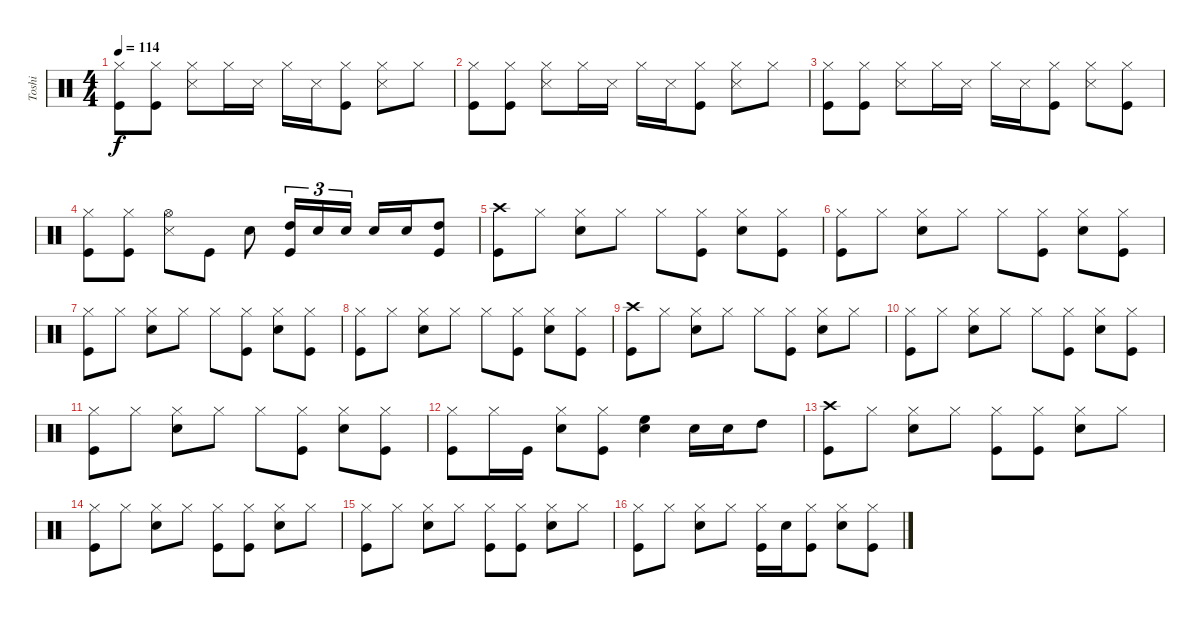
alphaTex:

\track ("Toshi" "Toshi") {instrument percussion}
\staff {score}
\articulation defaults
\ts (4 4)
\tempo 114
\clef neutral
\ks c
("Hi-Hat (closed)" "Kick (hit)").8{dy f} ("Hi-Hat (closed)" "Kick (hit)").8 ("Hi-Hat (closed)" "Snare (side stick) 3").8 "Hi-Hat (closed)".16 "Snare (side stick) 3".16 "Hi-Hat (closed)".16 "Snare (side stick) 3".16 ("Hi-Hat (closed)" "Kick (hit)").8 ("Hi-Hat (closed)" "Snare (side stick) 3").8 "Hi-Hat (closed)".8 |
("Hi-Hat (closed)" "Kick (hit)").8 ("Hi-Hat (closed)" "Kick (hit)").8 ("Hi-Hat (closed)" "Snare (side stick) 3").8 "Hi-Hat (closed)".16 "Snare (side stick) 3".16 "Hi-Hat (closed)".16 "Snare (side stick) 3".16 ("Hi-Hat (closed)" "Kick (hit)").8 ("Hi-Hat (closed)" "Snare (side stick) 3").8 "Hi-Hat (closed)".8 |
("Hi-Hat (closed)" "Kick (hit)").8 ("Hi-Hat (closed)" "Kick (hit)").8 ("Hi-Hat (closed)" "Snare (side stick) 3").8 "Hi-Hat (closed)".16 "Snare (side stick) 3".16 "Hi-Hat (closed)".16 "Snare (side stick) 3".16 ("Hi-Hat (closed)" "Kick (hit)").8 ("Hi-Hat (closed)" "Snare (side stick) 3").8 ("Hi-Hat (closed)" "Kick (hit)").8 |
("Hi-Hat (closed)" "Kick (hit)").8 ("Hi-Hat (closed)" "Kick (hit)").8 ("Hi-Hat (open)" "Snare (side stick) 3").8 "Kick (hit)".8 "Snare (hit) 2".8 ("High Tom (hit)" "Kick (hit)").16{tu (3 2)} "Snare (hit) 2".16{tu (3 2)} "Snare (hit) 2".16{tu (3 2)} "Snare (hit) 2".16 "Snare (hit) 2".16 ("High Tom (hit)" "Kick (hit)").8 |
("Crash high (hit)" "Kick (hit)").8 "Hi-Hat (closed)".8 ("Hi-Hat (closed)" "Snare (hit) 2").8 "Hi-Hat (closed)".8 "Hi-Hat (closed)".8 ("Hi-Hat (closed)" "Kick (hit)").8 ("Hi-Hat (closed)" "Snare (hit) 2").8 ("Hi-Hat (closed)" "Kick (hit)").8 |
("Hi-Hat (closed)" "Kick (hit)").8 "Hi-Hat (closed)".8 ("Hi-Hat (closed)" "Snare (hit) 2").8 "Hi-Hat (closed)".8 "Hi-Hat (closed)".8 ("Hi-Hat (closed)" "Kick (hit)").8 ("Hi-Hat (closed)" "Snare (hit) 2").8 ("Hi-Hat (closed)" "Kick (hit)").8 |
("Hi-Hat (closed)" "Kick (hit)").8 "Hi-Hat (closed)".8 ("Hi-Hat (closed)" "Snare (hit) 2").8 "Hi-Hat (closed)".8 "Hi-Hat (closed)".8 ("Hi-Hat (closed)" "Kick (hit)").8 ("Hi-Hat (closed)" "Snare (hit) 2").8 ("Hi-Hat (closed)" "Kick (hit)").8 |
("Hi-Hat (closed)" "Kick (hit)").8 "Hi-Hat (closed)".8 ("Hi-Hat (closed)" "Snare (hit) 2").8 "Hi-Hat (closed)".8 "Hi-Hat (closed)".8 ("Hi-Hat (closed)" "Kick (hit)").8 ("Hi-Hat (closed)" "Snare (hit) 2").8 ("Hi-Hat (closed)" "Kick (hit)").8 |
("Crash high (hit)" "Kick (hit)").8 "Hi-Hat (closed)".8 ("Hi-Hat (closed)" "Snare (hit) 2").8 "Hi-Hat (closed)".8 "Hi-Hat (closed)".8 ("Hi-Hat (closed)" "Kick (hit)").8 ("Hi-Hat (closed)" "Snare (hit) 2").8 "Hi-Hat (closed)".8 |
("Hi-Hat (closed)" "Kick (hit)").8 "Hi-Hat (closed)".8 ("Hi-Hat (closed)" "Snare (hit) 2").8 "Hi-Hat (closed)".8 "Hi-Hat (closed)".8 ("Hi-Hat (closed)" "Kick (hit)").8 ("Hi-Hat (closed)" "Snare (hit) 2").8 ("Hi-Hat (closed)" "Kick (hit)").8 |
("Hi-Hat (closed)" "Kick (hit)").8 "Hi-Hat (closed)".8 ("Hi-Hat (closed)" "Snare (hit) 2").8 "Hi-Hat (closed)".8 "Hi-Hat (closed)".8 ("Hi-Hat (closed)" "Kick (hit)").8 ("Hi-Hat (closed)" "Snare (hit) 2").8 ("Hi-Hat (closed)" "Kick (hit)").8 |
("Hi-Hat (closed)" "Kick (hit)").8 "Hi-Hat (closed)".16 "Kick (hit)".16 ("Hi-Hat (closed)" "Snare (hit) 2").8 ("Hi-Hat (closed)" "Kick (hit)").8 ("Snare (hit) 2" "High Floor Tom (hit)").4 "Snare (hit) 2".16 "Snare (hit) 2".16 "High Tom (hit)".8 |
("Crash high (hit)" "Kick (hit)").8 "Hi-Hat (closed)".8 ("Hi-Hat (closed)" "Snare (hit) 2").8 "Hi-Hat (closed)".8 ("Hi-Hat (closed)" "Kick (hit)").8 ("Hi-Hat (closed)" "Kick (hit)").8 ("Hi-Hat (closed)" "Snare (hit) 2").8 "Hi-Hat (closed)".8 |
("Hi-Hat (closed)" "Kick (hit)").8 "Hi-Hat (closed)".8 ("Hi-Hat (closed)" "Snare (hit) 2").8 "Hi-Hat (closed)".8 ("Hi-Hat (closed)" "Kick (hit)").8 ("Hi-Hat (closed)" "Kick (hit)").8 ("Hi-Hat (closed)" "Snare (hit) 2").8 "Hi-Hat (closed)".8 |
("Hi-Hat (closed)" "Kick (hit)").8 "Hi-Hat (closed)".8 ("Hi-Hat (closed)" "Snare (hit) 2").8 "Hi-Hat (closed)".8 ("Hi-Hat (closed)" "Kick (hit)").8 ("Hi-Hat (closed)" "Kick (hit)").8 ("Hi-Hat (closed)" "Snare (hit) 2").8 "Hi-Hat (closed)".8 |
("Hi-Hat (closed)" "Kick (hit)").8 "Hi-Hat (closed)".8 ("Hi-Hat (closed)" "Snare (hit) 2").8 "Hi-Hat (closed)".8 ("Hi-Hat (closed)" "Kick (hit)").16 "Snare (hit) 2".16 ("Hi-Hat (closed)" "Kick (hit)").8 ("Hi-Hat (closed)" "Snare (hit) 2").8 ("Hi-Hat (closed)" "Kick (hit)").8
